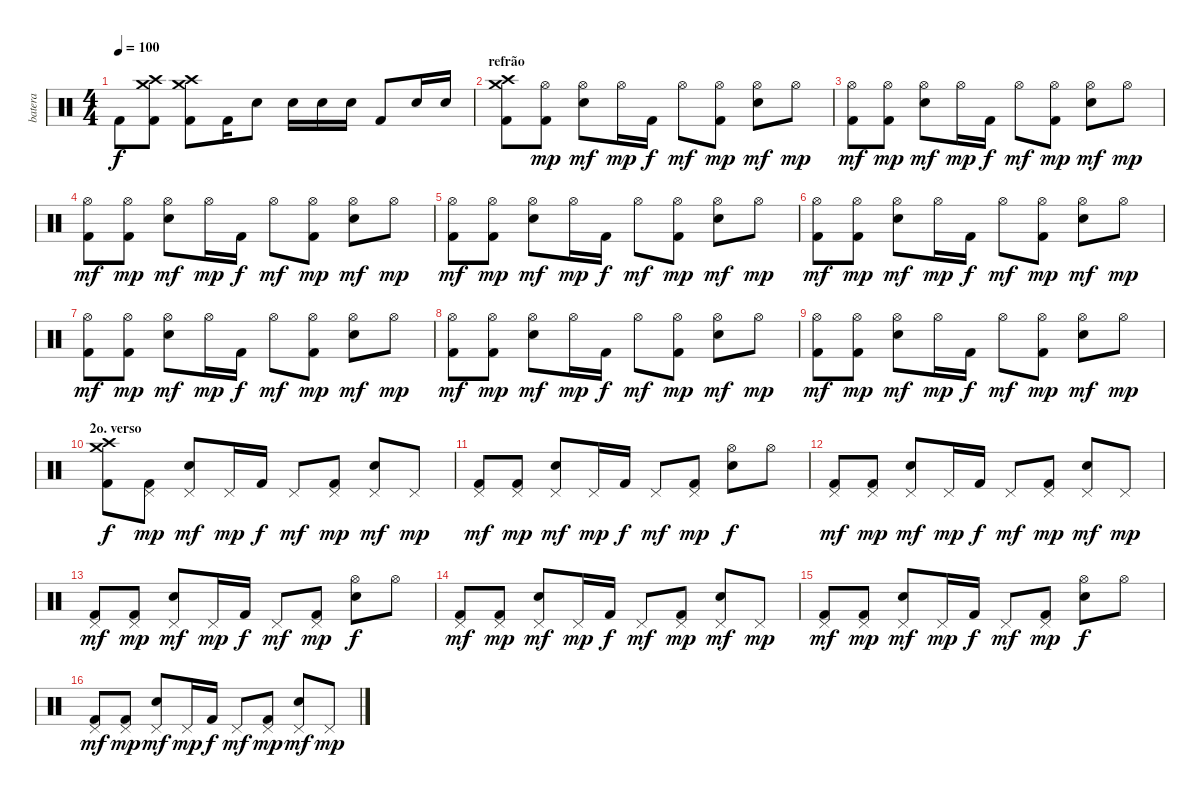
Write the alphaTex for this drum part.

\track ("batera" "batera") {instrument percussion}
\staff {score}
\articulation defaults
\ts (4 4)
\tempo 100
\clef neutral
\ks c "Kick (hit) 2".8{dy f}
("Crash high (hit)" "Crash medium (hit)" "Kick (hit) 2").8 ("Crash high (hit)" "Crash medium (hit)" "Kick (hit) 2").8 "Kick (hit) 2".16 "Snare (hit) 2".8 "Snare (hit) 2".16 "Snare (hit) 2".16 "Snare (hit) 2".16 "Kick (hit) 2".8 "Snare (hit) 2".16 "Snare (hit) 2".16 |
\section ("" "refrão")
("Crash high (hit)" "Crash medium (hit)" "Kick (hit) 2").8 ("Kick (hit) 2" "Hi-Hat (open)").8{dy mp} ("Snare (hit) 2" "Hi-Hat (open)").8{dy mf} "Hi-Hat (open)".16{dy mp} "Kick (hit) 2".16{dy f} "Hi-Hat (open)".8{dy mf} ("Kick (hit) 2" "Hi-Hat (open)").8{dy mp} ("Snare (hit) 2" "Hi-Hat (open)").8{dy mf} "Hi-Hat (open)".8{dy mp} |
("Kick (hit) 2" "Hi-Hat (open)").8{dy mf} ("Kick (hit) 2" "Hi-Hat (open)").8{dy mp} ("Snare (hit) 2" "Hi-Hat (open)").8{dy mf} "Hi-Hat (open)".16{dy mp} "Kick (hit) 2".16{dy f} "Hi-Hat (open)".8{dy mf} ("Kick (hit) 2" "Hi-Hat (open)").8{dy mp} ("Snare (hit) 2" "Hi-Hat (open)").8{dy mf} "Hi-Hat (open)".8{dy mp} |
("Kick (hit) 2" "Hi-Hat (open)").8{dy mf} ("Kick (hit) 2" "Hi-Hat (open)").8{dy mp} ("Snare (hit) 2" "Hi-Hat (open)").8{dy mf} "Hi-Hat (open)".16{dy mp} "Kick (hit) 2".16{dy f} "Hi-Hat (open)".8{dy mf} ("Kick (hit) 2" "Hi-Hat (open)").8{dy mp} ("Snare (hit) 2" "Hi-Hat (open)").8{dy mf} "Hi-Hat (open)".8{dy mp} |
("Kick (hit) 2" "Hi-Hat (open)").8{dy mf} ("Kick (hit) 2" "Hi-Hat (open)").8{dy mp} ("Snare (hit) 2" "Hi-Hat (open)").8{dy mf} "Hi-Hat (open)".16{dy mp} "Kick (hit) 2".16{dy f} "Hi-Hat (open)".8{dy mf} ("Kick (hit) 2" "Hi-Hat (open)").8{dy mp} ("Snare (hit) 2" "Hi-Hat (open)").8{dy mf} "Hi-Hat (open)".8{dy mp} |
("Kick (hit) 2" "Hi-Hat (open)").8{dy mf} ("Kick (hit) 2" "Hi-Hat (open)").8{dy mp} ("Snare (hit) 2" "Hi-Hat (open)").8{dy mf} "Hi-Hat (open)".16{dy mp} "Kick (hit) 2".16{dy f} "Hi-Hat (open)".8{dy mf} ("Kick (hit) 2" "Hi-Hat (open)").8{dy mp} ("Snare (hit) 2" "Hi-Hat (open)").8{dy mf} "Hi-Hat (open)".8{dy mp} |
("Kick (hit) 2" "Hi-Hat (open)").8{dy mf} ("Kick (hit) 2" "Hi-Hat (open)").8{dy mp} ("Snare (hit) 2" "Hi-Hat (open)").8{dy mf} "Hi-Hat (open)".16{dy mp} "Kick (hit) 2".16{dy f} "Hi-Hat (open)".8{dy mf} ("Kick (hit) 2" "Hi-Hat (open)").8{dy mp} ("Snare (hit) 2" "Hi-Hat (open)").8{dy mf} "Hi-Hat (open)".8{dy mp} |
("Kick (hit) 2" "Hi-Hat (open)").8{dy mf} ("Kick (hit) 2" "Hi-Hat (open)").8{dy mp} ("Snare (hit) 2" "Hi-Hat (open)").8{dy mf} "Hi-Hat (open)".16{dy mp} "Kick (hit) 2".16{dy f} "Hi-Hat (open)".8{dy mf} ("Kick (hit) 2" "Hi-Hat (open)").8{dy mp} ("Snare (hit) 2" "Hi-Hat (open)").8{dy mf} "Hi-Hat (open)".8{dy mp} |
("Kick (hit) 2" "Hi-Hat (open)").8{dy mf} ("Kick (hit) 2" "Hi-Hat (open)").8{dy mp} ("Snare (hit) 2" "Hi-Hat (open)").8{dy mf} "Hi-Hat (open)".16{dy mp} "Kick (hit) 2".16{dy f} "Hi-Hat (open)".8{dy mf} ("Kick (hit) 2" "Hi-Hat (open)").8{dy mp} ("Snare (hit) 2" "Hi-Hat (open)").8{dy mf} "Hi-Hat (open)".8{dy mp} |
\section ("" "2o. verso")
("Crash high (hit)" "Crash medium (hit)" "Kick (hit) 2").8{dy f} ("Kick (hit) 2" "Pedal Hi-Hat (hit)").8{dy mp} ("Snare (hit) 2" "Pedal Hi-Hat (hit)").8{dy mf} "Pedal Hi-Hat (hit)".16{dy mp} "Kick (hit) 2".16{dy f} "Pedal Hi-Hat (hit)".8{dy mf} ("Kick (hit) 2" "Pedal Hi-Hat (hit)").8{dy mp} ("Snare (hit) 2" "Pedal Hi-Hat (hit)").8{dy mf} "Pedal Hi-Hat (hit)".8{dy mp} |
("Kick (hit) 2" "Pedal Hi-Hat (hit)").8{dy mf} ("Kick (hit) 2" "Pedal Hi-Hat (hit)").8{dy mp} ("Snare (hit) 2" "Pedal Hi-Hat (hit)").8{dy mf} "Pedal Hi-Hat (hit)".16{dy mp} "Kick (hit) 2".16{dy f} "Pedal Hi-Hat (hit)".8{dy mf} ("Kick (hit) 2" "Pedal Hi-Hat (hit)").8{dy mp} ("Snare (hit) 2" "Hi-Hat (open)").8{dy f} "Hi-Hat (open)".8 |
("Kick (hit) 2" "Pedal Hi-Hat (hit)").8{dy mf} ("Kick (hit) 2" "Pedal Hi-Hat (hit)").8{dy mp} ("Snare (hit) 2" "Pedal Hi-Hat (hit)").8{dy mf} "Pedal Hi-Hat (hit)".16{dy mp} "Kick (hit) 2".16{dy f} "Pedal Hi-Hat (hit)".8{dy mf} ("Kick (hit) 2" "Pedal Hi-Hat (hit)").8{dy mp} ("Snare (hit) 2" "Pedal Hi-Hat (hit)").8{dy mf} "Pedal Hi-Hat (hit)".8{dy mp} |
("Kick (hit) 2" "Pedal Hi-Hat (hit)").8{dy mf} ("Kick (hit) 2" "Pedal Hi-Hat (hit)").8{dy mp} ("Snare (hit) 2" "Pedal Hi-Hat (hit)").8{dy mf} "Pedal Hi-Hat (hit)".16{dy mp} "Kick (hit) 2".16{dy f} "Pedal Hi-Hat (hit)".8{dy mf} ("Kick (hit) 2" "Pedal Hi-Hat (hit)").8{dy mp} ("Snare (hit) 2" "Hi-Hat (open)").8{dy f} "Hi-Hat (open)".8 |
("Kick (hit) 2" "Pedal Hi-Hat (hit)").8{dy mf} ("Kick (hit) 2" "Pedal Hi-Hat (hit)").8{dy mp} ("Snare (hit) 2" "Pedal Hi-Hat (hit)").8{dy mf} "Pedal Hi-Hat (hit)".16{dy mp} "Kick (hit) 2".16{dy f} "Pedal Hi-Hat (hit)".8{dy mf} ("Kick (hit) 2" "Pedal Hi-Hat (hit)").8{dy mp} ("Snare (hit) 2" "Pedal Hi-Hat (hit)").8{dy mf} "Pedal Hi-Hat (hit)".8{dy mp} |
("Kick (hit) 2" "Pedal Hi-Hat (hit)").8{dy mf} ("Kick (hit) 2" "Pedal Hi-Hat (hit)").8{dy mp} ("Snare (hit) 2" "Pedal Hi-Hat (hit)").8{dy mf} "Pedal Hi-Hat (hit)".16{dy mp} "Kick (hit) 2".16{dy f} "Pedal Hi-Hat (hit)".8{dy mf} ("Kick (hit) 2" "Pedal Hi-Hat (hit)").8{dy mp} ("Snare (hit) 2" "Hi-Hat (open)").8{dy f} "Hi-Hat (open)".8 |
("Kick (hit) 2" "Pedal Hi-Hat (hit)").8{dy mf} ("Kick (hit) 2" "Pedal Hi-Hat (hit)").8{dy mp} ("Snare (hit) 2" "Pedal Hi-Hat (hit)").8{dy mf} "Pedal Hi-Hat (hit)".16{dy mp} "Kick (hit) 2".16{dy f} "Pedal Hi-Hat (hit)".8{dy mf} ("Kick (hit) 2" "Pedal Hi-Hat (hit)").8{dy mp} ("Snare (hit) 2" "Pedal Hi-Hat (hit)").8{dy mf} "Pedal Hi-Hat (hit)".8{dy mp}
